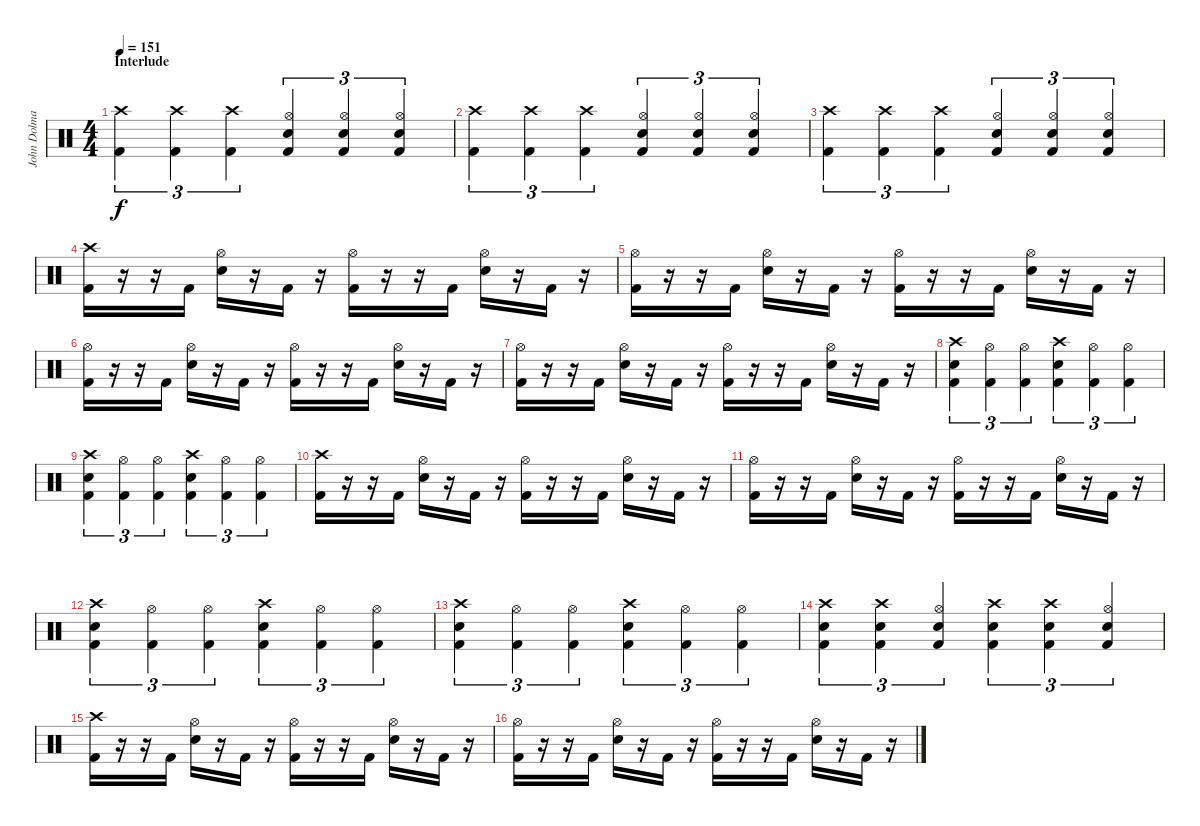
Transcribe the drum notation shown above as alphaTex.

\track ("John Dolmayan" "John Dolma") {instrument percussion}
\staff {score}
\articulation defaults
\ts (4 4)
\section ("" "Interlude")
\tempo 151
\clef neutral
\ks c
("Crash high (hit)" "Kick (hit) 2").4{tu (3 2) dy f} ("Crash high (hit)" "Kick (hit) 2").4{tu (3 2)} ("Crash high (hit)" "Kick (hit) 2").4{tu (3 2)} ("Hi-Hat (open)" "Snare (hit) 2" "Kick (hit) 2").4{tu (3 2)} ("Hi-Hat (open)" "Snare (hit) 2" "Kick (hit) 2").4{tu (3 2)} ("Hi-Hat (open)" "Snare (hit) 2" "Kick (hit) 2").4{tu (3 2)} |
("Crash high (hit)" "Kick (hit) 2").4{tu (3 2)} ("Crash high (hit)" "Kick (hit) 2").4{tu (3 2)} ("Crash high (hit)" "Kick (hit) 2").4{tu (3 2)} ("Hi-Hat (open)" "Snare (hit) 2" "Kick (hit) 2").4{tu (3 2)} ("Hi-Hat (open)" "Snare (hit) 2" "Kick (hit) 2").4{tu (3 2)} ("Hi-Hat (open)" "Snare (hit) 2" "Kick (hit) 2").4{tu (3 2)} |
("Crash high (hit)" "Kick (hit) 2").4{tu (3 2)} ("Crash high (hit)" "Kick (hit) 2").4{tu (3 2)} ("Crash high (hit)" "Kick (hit) 2").4{tu (3 2)} ("Hi-Hat (open)" "Snare (hit) 2" "Kick (hit) 2").4{tu (3 2)} ("Hi-Hat (open)" "Snare (hit) 2" "Kick (hit) 2").4{tu (3 2)} ("Hi-Hat (open)" "Snare (hit) 2" "Kick (hit) 2").4{tu (3 2)} |
("Crash high (hit)" "Kick (hit) 2").16 r.16 r.16 "Kick (hit) 2".16 ("Hi-Hat (open)" "Snare (hit) 2").16 r.16 "Kick (hit) 2".16 r.16 ("Hi-Hat (open)" "Kick (hit) 2").16 r.16 r.16 "Kick (hit) 2".16 ("Hi-Hat (open)" "Snare (hit) 2").16 r.16 "Kick (hit) 2".16 r.16 |
("Hi-Hat (open)" "Kick (hit) 2").16 r.16 r.16 "Kick (hit) 2".16 ("Hi-Hat (open)" "Snare (hit) 2").16 r.16 "Kick (hit) 2".16 r.16 ("Hi-Hat (open)" "Kick (hit) 2").16 r.16 r.16 "Kick (hit) 2".16 ("Hi-Hat (open)" "Snare (hit) 2").16 r.16 "Kick (hit) 2".16 r.16 |
("Hi-Hat (open)" "Kick (hit) 2").16 r.16 r.16 "Kick (hit) 2".16 ("Hi-Hat (open)" "Snare (hit) 2").16 r.16 "Kick (hit) 2".16 r.16 ("Hi-Hat (open)" "Kick (hit) 2").16 r.16 r.16 "Kick (hit) 2".16 ("Hi-Hat (open)" "Snare (hit) 2").16 r.16 "Kick (hit) 2".16 r.16 |
("Hi-Hat (open)" "Kick (hit) 2").16 r.16 r.16 "Kick (hit) 2".16 ("Hi-Hat (open)" "Snare (hit) 2").16 r.16 "Kick (hit) 2".16 r.16 ("Hi-Hat (open)" "Kick (hit) 2").16 r.16 r.16 "Kick (hit) 2".16 ("Hi-Hat (open)" "Snare (hit) 2").16 r.16 "Kick (hit) 2".16 r.16 |
("Crash high (hit)" "Snare (hit) 2" "Kick (hit) 2").4{tu (3 2)} ("Hi-Hat (open)" "Kick (hit) 2").4{tu (3 2)} ("Hi-Hat (open)" "Kick (hit) 2").4{tu (3 2)} ("Crash high (hit)" "Snare (hit) 2" "Kick (hit) 2").4{tu (3 2)} ("Hi-Hat (open)" "Kick (hit) 2").4{tu (3 2)} ("Hi-Hat (open)" "Kick (hit) 2").4{tu (3 2)} |
("Crash high (hit)" "Snare (hit) 2" "Kick (hit) 2").4{tu (3 2)} ("Hi-Hat (open)" "Kick (hit) 2").4{tu (3 2)} ("Hi-Hat (open)" "Kick (hit) 2").4{tu (3 2)} ("Crash high (hit)" "Snare (hit) 2" "Kick (hit) 2").4{tu (3 2)} ("Hi-Hat (open)" "Kick (hit) 2").4{tu (3 2)} ("Hi-Hat (open)" "Kick (hit) 2").4{tu (3 2)} |
("Crash high (hit)" "Kick (hit) 2").16 r.16 r.16 "Kick (hit) 2".16 ("Hi-Hat (open)" "Snare (hit) 2").16 r.16 "Kick (hit) 2".16 r.16 ("Hi-Hat (open)" "Kick (hit) 2").16 r.16 r.16 "Kick (hit) 2".16 ("Hi-Hat (open)" "Snare (hit) 2").16 r.16 "Kick (hit) 2".16 r.16 |
("Hi-Hat (open)" "Kick (hit) 2").16 r.16 r.16 "Kick (hit) 2".16 ("Hi-Hat (open)" "Snare (hit) 2").16 r.16 "Kick (hit) 2".16 r.16 ("Hi-Hat (open)" "Kick (hit) 2").16 r.16 r.16 "Kick (hit) 2".16 ("Hi-Hat (open)" "Snare (hit) 2").16 r.16 "Kick (hit) 2".16 r.16 |
("Crash high (hit)" "Snare (hit) 2" "Kick (hit) 2").4{tu (3 2)} ("Hi-Hat (open)" "Kick (hit) 2").4{tu (3 2)} ("Hi-Hat (open)" "Kick (hit) 2").4{tu (3 2)} ("Crash high (hit)" "Snare (hit) 2" "Kick (hit) 2").4{tu (3 2)} ("Hi-Hat (open)" "Kick (hit) 2").4{tu (3 2)} ("Hi-Hat (open)" "Kick (hit) 2").4{tu (3 2)} |
("Crash high (hit)" "Snare (hit) 2" "Kick (hit) 2").4{tu (3 2)} ("Hi-Hat (open)" "Kick (hit) 2").4{tu (3 2)} ("Hi-Hat (open)" "Kick (hit) 2").4{tu (3 2)} ("Crash high (hit)" "Snare (hit) 2" "Kick (hit) 2").4{tu (3 2)} ("Hi-Hat (open)" "Kick (hit) 2").4{tu (3 2)} ("Hi-Hat (open)" "Kick (hit) 2").4{tu (3 2)} |
("Crash high (hit)" "Snare (hit) 2" "Kick (hit) 2").4{tu (3 2)} ("Crash high (hit)" "Snare (hit) 2" "Kick (hit) 2").4{tu (3 2)} ("Hi-Hat (open)" "Snare (hit) 2" "Kick (hit) 2").4{tu (3 2)} ("Crash high (hit)" "Snare (hit) 2" "Kick (hit) 2").4{tu (3 2)} ("Crash high (hit)" "Snare (hit) 2" "Kick (hit) 2").4{tu (3 2)} ("Hi-Hat (open)" "Snare (hit) 2" "Kick (hit) 2").4{tu (3 2)} |
("Crash high (hit)" "Kick (hit) 2").16 r.16 r.16 "Kick (hit) 2".16 ("Hi-Hat (open)" "Snare (hit) 2").16 r.16 "Kick (hit) 2".16 r.16 ("Hi-Hat (open)" "Kick (hit) 2").16 r.16 r.16 "Kick (hit) 2".16 ("Hi-Hat (open)" "Snare (hit) 2").16 r.16 "Kick (hit) 2".16 r.16 |
("Hi-Hat (open)" "Kick (hit) 2").16 r.16 r.16 "Kick (hit) 2".16 ("Hi-Hat (open)" "Snare (hit) 2").16 r.16 "Kick (hit) 2".16 r.16 ("Hi-Hat (open)" "Kick (hit) 2").16 r.16 r.16 "Kick (hit) 2".16 ("Hi-Hat (open)" "Snare (hit) 2").16 r.16 "Kick (hit) 2".16 r.16
